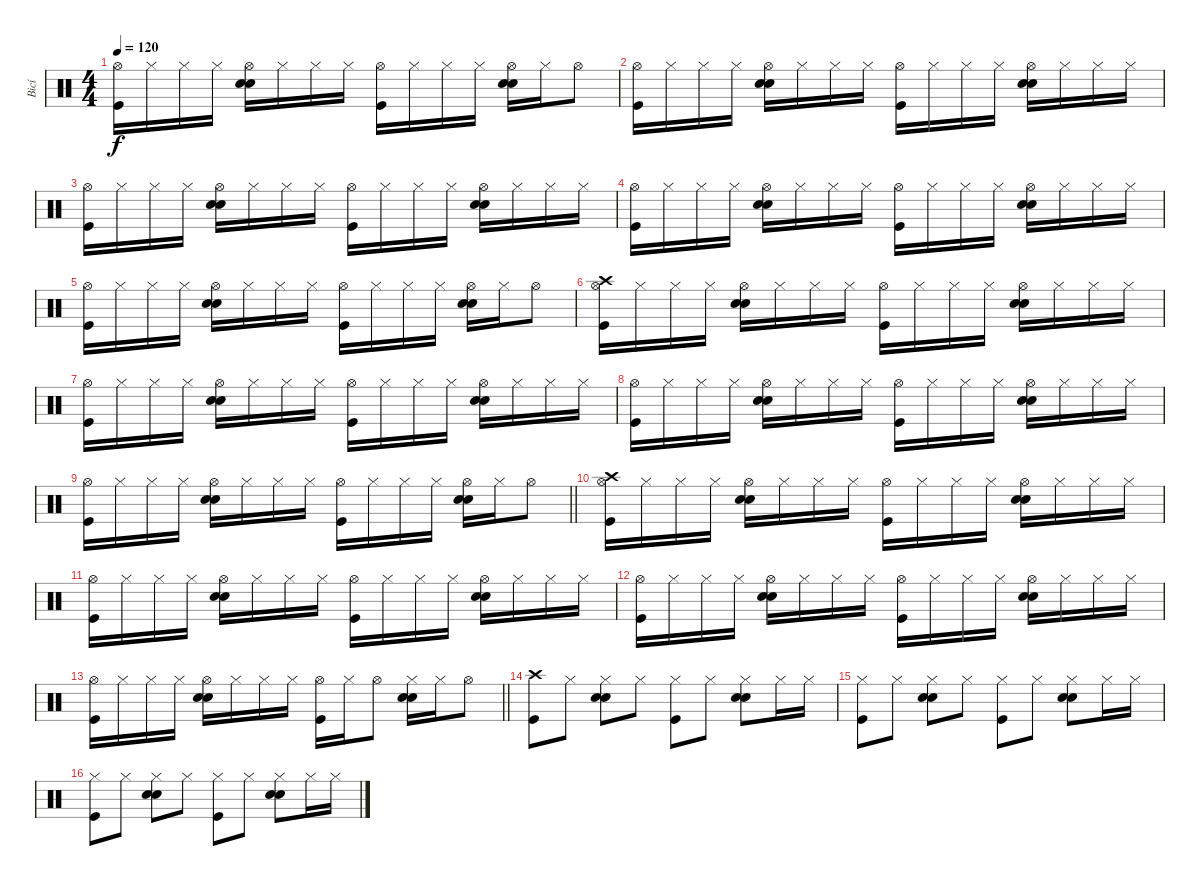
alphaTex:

\track ("Bicí" "Bicí") {instrument percussion}
\staff {score}
\articulation defaults
\ts (4 4)
\tempo 120
\clef neutral
\ks c
("Hi-Hat (open)" "Kick (hit)").16{dy f} "Hi-Hat (closed)".16 "Hi-Hat (closed)".16 "Hi-Hat (closed)".16 ("Hi-Hat (open)" "Hand Clap (hit)" "Electric Snare (hit)").16 "Hi-Hat (closed)".16 "Hi-Hat (closed)".16 "Hi-Hat (closed)".16 ("Hi-Hat (open)" "Kick (hit)").16 "Hi-Hat (closed)".16 "Hi-Hat (closed)".16 "Hi-Hat (closed)".16 ("Hi-Hat (open)" "Hand Clap (hit)" "Electric Snare (hit)").16 "Hi-Hat (closed)".16 "Hi-Hat (open)".8 |
("Hi-Hat (open)" "Kick (hit)").16 "Hi-Hat (closed)".16 "Hi-Hat (closed)".16 "Hi-Hat (closed)".16 ("Hi-Hat (open)" "Hand Clap (hit)" "Electric Snare (hit)").16 "Hi-Hat (closed)".16 "Hi-Hat (closed)".16 "Hi-Hat (closed)".16 ("Hi-Hat (open)" "Kick (hit)").16 "Hi-Hat (closed)".16 "Hi-Hat (closed)".16 "Hi-Hat (closed)".16 ("Hi-Hat (open)" "Hand Clap (hit)" "Electric Snare (hit)").16 "Hi-Hat (closed)".16 "Hi-Hat (closed)".16 "Hi-Hat (closed)".16 |
("Hi-Hat (open)" "Kick (hit)").16 "Hi-Hat (closed)".16 "Hi-Hat (closed)".16 "Hi-Hat (closed)".16 ("Hi-Hat (open)" "Hand Clap (hit)" "Electric Snare (hit)").16 "Hi-Hat (closed)".16 "Hi-Hat (closed)".16 "Hi-Hat (closed)".16 ("Hi-Hat (open)" "Kick (hit)").16 "Hi-Hat (closed)".16 "Hi-Hat (closed)".16 "Hi-Hat (closed)".16 ("Hi-Hat (open)" "Hand Clap (hit)" "Electric Snare (hit)").16 "Hi-Hat (closed)".16 "Hi-Hat (closed)".16 "Hi-Hat (closed)".16 |
("Hi-Hat (open)" "Kick (hit)").16 "Hi-Hat (closed)".16 "Hi-Hat (closed)".16 "Hi-Hat (closed)".16 ("Hi-Hat (open)" "Hand Clap (hit)" "Electric Snare (hit)").16 "Hi-Hat (closed)".16 "Hi-Hat (closed)".16 "Hi-Hat (closed)".16 ("Hi-Hat (open)" "Kick (hit)").16 "Hi-Hat (closed)".16 "Hi-Hat (closed)".16 "Hi-Hat (closed)".16 ("Hi-Hat (open)" "Hand Clap (hit)" "Electric Snare (hit)").16 "Hi-Hat (closed)".16 "Hi-Hat (closed)".16 "Hi-Hat (closed)".16 |
("Hi-Hat (open)" "Kick (hit)").16 "Hi-Hat (closed)".16 "Hi-Hat (closed)".16 "Hi-Hat (closed)".16 ("Hi-Hat (open)" "Hand Clap (hit)" "Electric Snare (hit)").16 "Hi-Hat (closed)".16 "Hi-Hat (closed)".16 "Hi-Hat (closed)".16 ("Hi-Hat (open)" "Kick (hit)").16 "Hi-Hat (closed)".16 "Hi-Hat (closed)".16 "Hi-Hat (closed)".16 ("Hi-Hat (open)" "Hand Clap (hit)" "Electric Snare (hit)").16 "Hi-Hat (closed)".16 "Hi-Hat (open)".8 |
("Crash high (hit)" "Hi-Hat (open)" "Kick (hit)").16 "Hi-Hat (closed)".16 "Hi-Hat (closed)".16 "Hi-Hat (closed)".16 ("Hi-Hat (open)" "Hand Clap (hit)" "Electric Snare (hit)").16 "Hi-Hat (closed)".16 "Hi-Hat (closed)".16 "Hi-Hat (closed)".16 ("Hi-Hat (open)" "Kick (hit)").16 "Hi-Hat (closed)".16 "Hi-Hat (closed)".16 "Hi-Hat (closed)".16 ("Hi-Hat (open)" "Hand Clap (hit)" "Electric Snare (hit)").16 "Hi-Hat (closed)".16 "Hi-Hat (closed)".16 "Hi-Hat (closed)".16 |
("Hi-Hat (open)" "Kick (hit)").16 "Hi-Hat (closed)".16 "Hi-Hat (closed)".16 "Hi-Hat (closed)".16 ("Hi-Hat (open)" "Hand Clap (hit)" "Electric Snare (hit)").16 "Hi-Hat (closed)".16 "Hi-Hat (closed)".16 "Hi-Hat (closed)".16 ("Hi-Hat (open)" "Kick (hit)").16 "Hi-Hat (closed)".16 "Hi-Hat (closed)".16 "Hi-Hat (closed)".16 ("Hi-Hat (open)" "Hand Clap (hit)" "Electric Snare (hit)").16 "Hi-Hat (closed)".16 "Hi-Hat (closed)".16 "Hi-Hat (closed)".16 |
("Hi-Hat (open)" "Kick (hit)").16 "Hi-Hat (closed)".16 "Hi-Hat (closed)".16 "Hi-Hat (closed)".16 ("Hi-Hat (open)" "Hand Clap (hit)" "Electric Snare (hit)").16 "Hi-Hat (closed)".16 "Hi-Hat (closed)".16 "Hi-Hat (closed)".16 ("Hi-Hat (open)" "Kick (hit)").16 "Hi-Hat (closed)".16 "Hi-Hat (closed)".16 "Hi-Hat (closed)".16 ("Hi-Hat (open)" "Hand Clap (hit)" "Electric Snare (hit)").16 "Hi-Hat (closed)".16 "Hi-Hat (closed)".16 "Hi-Hat (closed)".16 |
\barLineRight lightlight
("Hi-Hat (open)" "Kick (hit)").16 "Hi-Hat (closed)".16 "Hi-Hat (closed)".16 "Hi-Hat (closed)".16 ("Hi-Hat (open)" "Hand Clap (hit)" "Electric Snare (hit)").16 "Hi-Hat (closed)".16 "Hi-Hat (closed)".16 "Hi-Hat (closed)".16 ("Hi-Hat (open)" "Kick (hit)").16 "Hi-Hat (closed)".16 "Hi-Hat (closed)".16 "Hi-Hat (closed)".16 ("Hi-Hat (open)" "Hand Clap (hit)" "Electric Snare (hit)").16 "Hi-Hat (closed)".16 "Hi-Hat (open)".8 |
("Crash high (hit)" "Hi-Hat (open)" "Kick (hit)").16 "Hi-Hat (closed)".16 "Hi-Hat (closed)".16 "Hi-Hat (closed)".16 ("Hi-Hat (open)" "Hand Clap (hit)" "Electric Snare (hit)").16 "Hi-Hat (closed)".16 "Hi-Hat (closed)".16 "Hi-Hat (closed)".16 ("Hi-Hat (open)" "Kick (hit)").16 "Hi-Hat (closed)".16 "Hi-Hat (closed)".16 "Hi-Hat (closed)".16 ("Hi-Hat (open)" "Hand Clap (hit)" "Electric Snare (hit)").16 "Hi-Hat (closed)".16 "Hi-Hat (closed)".16 "Hi-Hat (closed)".16 |
("Hi-Hat (open)" "Kick (hit)").16 "Hi-Hat (closed)".16 "Hi-Hat (closed)".16 "Hi-Hat (closed)".16 ("Hi-Hat (open)" "Hand Clap (hit)" "Electric Snare (hit)").16 "Hi-Hat (closed)".16 "Hi-Hat (closed)".16 "Hi-Hat (closed)".16 ("Hi-Hat (open)" "Kick (hit)").16 "Hi-Hat (closed)".16 "Hi-Hat (closed)".16 "Hi-Hat (closed)".16 ("Hi-Hat (open)" "Hand Clap (hit)" "Electric Snare (hit)").16 "Hi-Hat (closed)".16 "Hi-Hat (closed)".16 "Hi-Hat (closed)".16 |
("Hi-Hat (open)" "Kick (hit)").16 "Hi-Hat (closed)".16 "Hi-Hat (closed)".16 "Hi-Hat (closed)".16 ("Hi-Hat (open)" "Hand Clap (hit)" "Electric Snare (hit)").16 "Hi-Hat (closed)".16 "Hi-Hat (closed)".16 "Hi-Hat (closed)".16 ("Hi-Hat (open)" "Kick (hit)").16 "Hi-Hat (closed)".16 "Hi-Hat (closed)".16 "Hi-Hat (closed)".16 ("Hi-Hat (open)" "Hand Clap (hit)" "Electric Snare (hit)").16 "Hi-Hat (closed)".16 "Hi-Hat (closed)".16 "Hi-Hat (closed)".16 |
\barLineRight lightlight
("Hi-Hat (open)" "Kick (hit)").16 "Hi-Hat (closed)".16 "Hi-Hat (closed)".16 "Hi-Hat (closed)".16 ("Hi-Hat (open)" "Hand Clap (hit)" "Electric Snare (hit)").16 "Hi-Hat (closed)".16 "Hi-Hat (closed)".16 "Hi-Hat (closed)".16 ("Hi-Hat (open)" "Kick (hit)").16 "Hi-Hat (closed)".16 "Hi-Hat (open)".8 ("Hi-Hat (closed)" "Hand Clap (hit)" "Electric Snare (hit)").16 "Hi-Hat (closed)".16 "Hi-Hat (open)".8 |
\section ("" "")
("Crash high (hit)" "Kick (hit)").8 "Hi-Hat (closed)".8 ("Hi-Hat (closed)" "Hand Clap (hit)" "Electric Snare (hit)").8 "Hi-Hat (closed)".8 ("Hi-Hat (closed)" "Kick (hit)").8 "Hi-Hat (closed)".8 ("Hi-Hat (closed)" "Hand Clap (hit)" "Electric Snare (hit)").8 "Hi-Hat (closed)".16 "Hi-Hat (closed)".16 |
("Hi-Hat (closed)" "Kick (hit)").8 "Hi-Hat (closed)".8 ("Hi-Hat (closed)" "Hand Clap (hit)" "Electric Snare (hit)").8 "Hi-Hat (closed)".8 ("Hi-Hat (closed)" "Kick (hit)").8 "Hi-Hat (closed)".8 ("Hi-Hat (closed)" "Hand Clap (hit)" "Electric Snare (hit)").8 "Hi-Hat (closed)".16 "Hi-Hat (closed)".16 |
("Hi-Hat (closed)" "Kick (hit)").8 "Hi-Hat (closed)".8 ("Hi-Hat (closed)" "Hand Clap (hit)" "Electric Snare (hit)").8 "Hi-Hat (closed)".8 ("Hi-Hat (closed)" "Kick (hit)").8 "Hi-Hat (closed)".8 ("Hi-Hat (closed)" "Hand Clap (hit)" "Electric Snare (hit)").8 "Hi-Hat (closed)".16 "Hi-Hat (closed)".16
